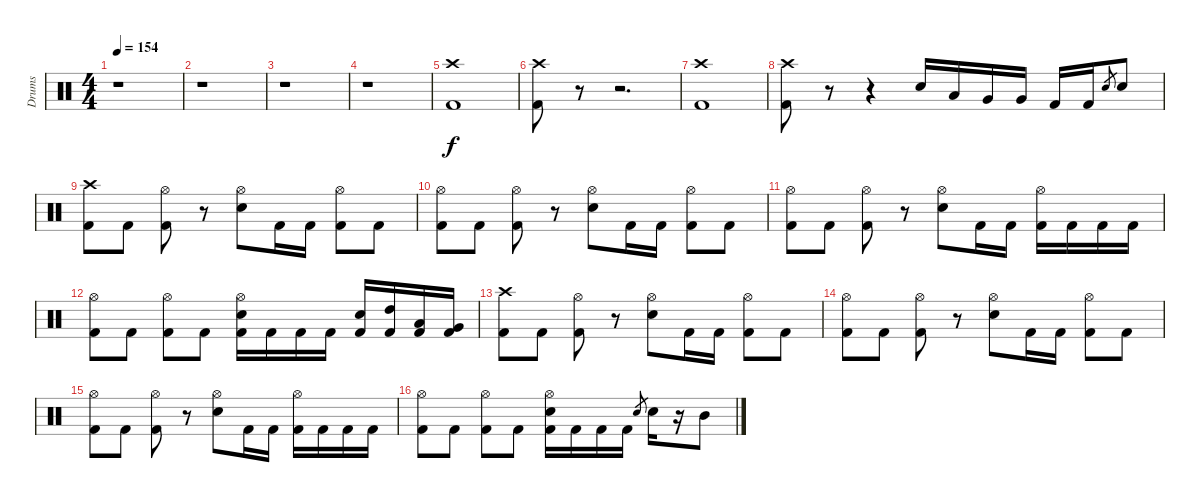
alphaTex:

\track ("Drums" "Drums") {instrument percussion}
\staff {score}
\articulation defaults
\ts (4 4)
\tempo 154
\clef neutral
\ks c
r.1{dy f} |
r.1 |
r.1 |
r.1 |
("Crash high (hit)" "Kick (hit) 2").1 |
("Crash high (hit)" "Kick (hit) 2").8 r.8{volume 0} r.2{d} |
("Crash high (hit)" "Kick (hit) 2").1{volume 13} |
("Crash high (hit)" "Kick (hit) 2").8 r.8{volume 0} r.4 "Electric Snare (hit)".16{volume 13} "Low Tom (hit)".16 "Very Low Tom (hit)".16 "Very Low Tom (hit)".16 "Kick (hit) 2".16 "Kick (hit) 2".16 "Electric Snare (hit)".8{gr} "Electric Snare (hit)".8 |
("Crash high (hit)" "Kick (hit) 2").8 "Kick (hit) 2".8 ("Hi-Hat (open)" "Kick (hit) 2").8 r.8 ("Hi-Hat (open)" "Electric Snare (hit)").8 "Kick (hit) 2".16 "Kick (hit) 2".16 ("Hi-Hat (open)" "Kick (hit) 2").8 "Kick (hit) 2".8 |
("Hi-Hat (open)" "Kick (hit) 2").8 "Kick (hit) 2".8 ("Hi-Hat (open)" "Kick (hit) 2").8 r.8 ("Hi-Hat (open)" "Electric Snare (hit)").8 "Kick (hit) 2".16 "Kick (hit) 2".16 ("Hi-Hat (open)" "Kick (hit) 2").8 "Kick (hit) 2".8 |
("Hi-Hat (open)" "Kick (hit) 2").8 "Kick (hit) 2".8 ("Hi-Hat (open)" "Kick (hit) 2").8 r.8 ("Hi-Hat (open)" "Electric Snare (hit)").8 "Kick (hit) 2".16 "Kick (hit) 2".16 ("Hi-Hat (open)" "Kick (hit) 2").16 "Kick (hit) 2".16 "Kick (hit) 2".16 "Kick (hit) 2".16 |
("Hi-Hat (open)" "Kick (hit) 2").8 "Kick (hit) 2".8 ("Hi-Hat (open)" "Kick (hit) 2").8 "Kick (hit) 2".8 ("Hi-Hat (open)" "Electric Snare (hit)" "Kick (hit) 2").16 "Kick (hit) 2".16 "Kick (hit) 2".16 "Kick (hit) 2".16 ("Electric Snare (hit)" "Kick (hit) 2").16 ("High Tom (hit)" "Kick (hit) 2").16 ("Low Tom (hit)" "Kick (hit) 2").16 ("Very Low Tom (hit)" "Kick (hit) 2").16 |
("Crash high (hit)" "Kick (hit) 2").8 "Kick (hit) 2".8 ("Hi-Hat (open)" "Kick (hit) 2").8 r.8 ("Hi-Hat (open)" "Electric Snare (hit)").8 "Kick (hit) 2".16 "Kick (hit) 2".16 ("Hi-Hat (open)" "Kick (hit) 2").8 "Kick (hit) 2".8 |
("Hi-Hat (open)" "Kick (hit) 2").8 "Kick (hit) 2".8 ("Hi-Hat (open)" "Kick (hit) 2").8 r.8 ("Hi-Hat (open)" "Electric Snare (hit)").8 "Kick (hit) 2".16 "Kick (hit) 2".16 ("Hi-Hat (open)" "Kick (hit) 2").8 "Kick (hit) 2".8 |
("Hi-Hat (open)" "Kick (hit) 2").8 "Kick (hit) 2".8 ("Hi-Hat (open)" "Kick (hit) 2").8 r.8 ("Hi-Hat (open)" "Electric Snare (hit)").8 "Kick (hit) 2".16 "Kick (hit) 2".16 ("Hi-Hat (open)" "Kick (hit) 2").16 "Kick (hit) 2".16 "Kick (hit) 2".16 "Kick (hit) 2".16 |
("Hi-Hat (open)" "Kick (hit) 2").8 "Kick (hit) 2".8 ("Hi-Hat (open)" "Kick (hit) 2").8 "Kick (hit) 2".8 ("Hi-Hat (open)" "Electric Snare (hit)" "Kick (hit) 2").16 "Kick (hit) 2".16 "Kick (hit) 2".16 "Kick (hit) 2".16 "Electric Snare (hit)".8{gr} "Electric Snare (hit)".16 r.16 "Mid Tom (hit)".8
